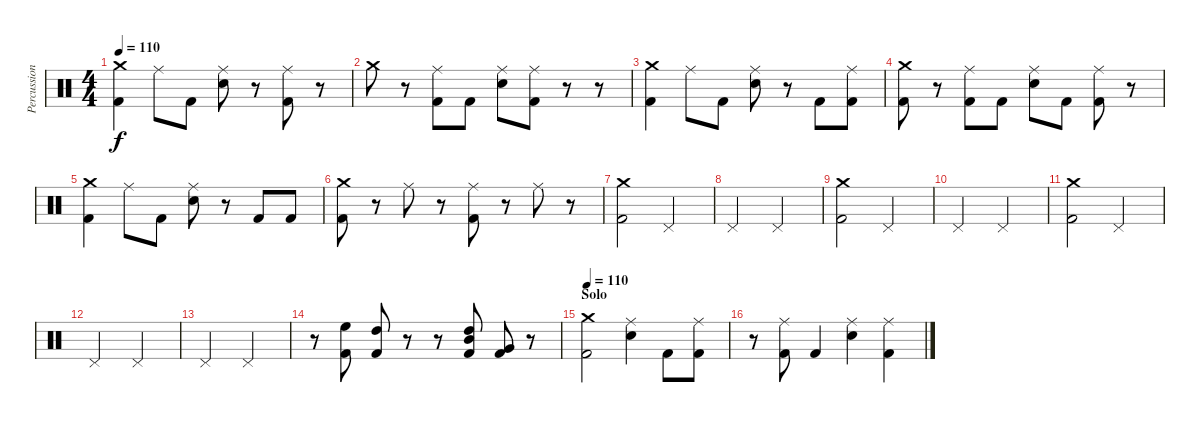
\track ("Percussion" "Percussion") {instrument percussion}
\staff {score}
\articulation defaults
\ts (4 4)
\tempo 110
\clef neutral
\ks c
("Crash medium (hit)" "Kick (hit) 2").4{dy f} "Ride (middle)".8 "Kick (hit) 2".8 ("Ride (middle)" "Electric Snare (hit)").8 r.8 ("Ride (middle)" "Kick (hit) 2").8 r.8 |
"Crash medium (hit)".8 r.8 ("Ride (middle)" "Kick (hit) 2").8 "Kick (hit) 2".8 ("Ride (middle)" "Electric Snare (hit)").8 ("Ride (middle)" "Kick (hit) 2").8 r.8 r.8 |
("Crash medium (hit)" "Kick (hit) 2").4 "Ride (middle)".8 "Kick (hit) 2".8 ("Ride (middle)" "Electric Snare (hit)").8 r.8 "Kick (hit) 2".8 ("Ride (middle)" "Kick (hit) 2").8 |
("Crash medium (hit)" "Kick (hit) 2").8 r.8 ("Ride (middle)" "Kick (hit) 2").8 "Kick (hit) 2".8 ("Ride (middle)" "Electric Snare (hit)").8 "Kick (hit) 2".8 ("Ride (middle)" "Kick (hit) 2").8 r.8 |
("Crash medium (hit)" "Kick (hit) 2").4 "Ride (middle)".8 "Kick (hit) 2".8 ("Ride (middle)" "Electric Snare (hit)").8 r.8 "Kick (hit) 2".8 "Kick (hit) 2".8 |
("Crash medium (hit)" "Kick (hit) 2").8 r.8 "Ride (middle)".8 r.8 ("Ride (middle)" "Kick (hit) 2").8 r.8 "Ride (middle)".8 r.8 |
("Kick (hit) 2" "Crash medium (hit)").2 "Pedal Hi-Hat (hit)".2 |
"Pedal Hi-Hat (hit)".2 "Pedal Hi-Hat (hit)".2 |
("Kick (hit) 2" "Crash medium (hit)").2 "Pedal Hi-Hat (hit)".2 |
"Pedal Hi-Hat (hit)".2 "Pedal Hi-Hat (hit)".2 |
("Kick (hit) 2" "Crash medium (hit)").2 "Pedal Hi-Hat (hit)".2 |
"Pedal Hi-Hat (hit)".2 "Pedal Hi-Hat (hit)".2 |
"Pedal Hi-Hat (hit)".2 "Pedal Hi-Hat (hit)".2 |
r.8 ("High Floor Tom (hit)" "Kick (hit) 2").8 ("High Tom (hit)" "Kick (hit) 2").8 r.8 r.8 ("High Tom (hit)" "Mid Tom (hit)" "Kick (hit) 2").8{bd 60} ("Very Low Tom (hit)" "Kick (hit) 2").8{bd 60} r.8 |
\section ("" "Solo")
\tempo 110
("Crash medium (hit)" "Kick (hit) 2").2 ("Ride (middle)" "Electric Snare (hit)").4 "Kick (hit) 2".8 ("Ride (middle)" "Kick (hit) 2").8 |
r.8 ("Ride (middle)" "Kick (hit) 2").8 "Kick (hit) 2".4 ("Ride (middle)" "Electric Snare (hit)").4 ("Ride (middle)" "Kick (hit) 2").4
